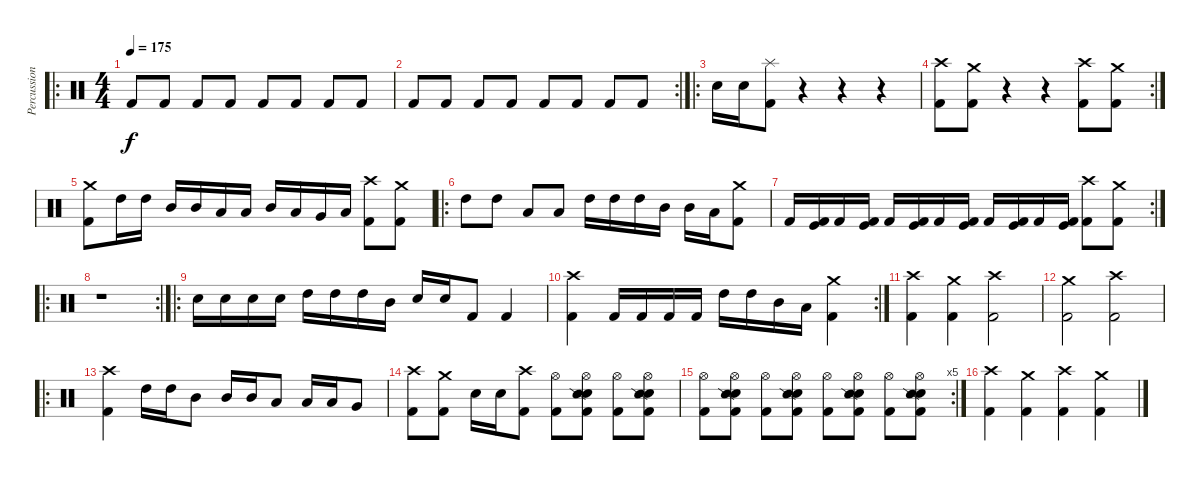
\track ("Percussion" "Percussion") {instrument percussion}
\staff {score}
\articulation defaults
\ro
\ts (4 4)
\tempo 175
\clef neutral
\ks c "Kick (hit) 2".8{dy f} "Kick (hit) 2".8 "Kick (hit) 2".8 "Kick (hit) 2".8 "Kick (hit) 2".8 "Kick (hit) 2".8 "Kick (hit) 2".8 "Kick (hit) 2".8
|
\rc 2 "Kick (hit) 2".8 "Kick (hit) 2".8 "Kick (hit) 2".8 "Kick (hit) 2".8 "Kick (hit) 2".8 "Kick (hit) 2".8 "Kick (hit) 2".8 "Kick (hit) 2".8
|
\ro "Electric Snare (hit)".16 "Electric Snare (hit)".16
("Splash (hit)" "Kick (hit) 2").8 r.4 r.4 r.4 |
\rc 2
("Crash high (hit)" "Kick (hit) 2").8 ("Crash medium (hit)" "Kick (hit) 2").8 r.4 r.4 ("Crash high (hit)" "Kick (hit) 2").8 ("Crash medium (hit)" "Kick (hit) 2").8 |
("Crash medium (hit)" "Kick (hit) 2").8 "High Tom (hit)".16 "High Tom (hit)".16 "Mid Tom (hit)".16 "Mid Tom (hit)".16 "Low Tom (hit)".16 "Low Tom (hit)".16 "Mid Tom (hit)".16 "Low Tom (hit)".16 "Very Low Tom (hit)".16 "Low Floor Tom (hit)".16 ("Crash high (hit)" "Kick (hit) 2").8 ("Crash medium (hit)" "Kick (hit) 2").8 |
\ro "High Tom (hit)".8 "High Tom (hit)".8 "Low Tom (hit)".8 "Low Tom (hit)".8 "High Tom (hit)".16 "High Tom (hit)".16 "High Tom (hit)".16 "Mid Tom (hit)".16 "Mid Tom (hit)".16 "Low Tom (hit)".16
("Crash medium (hit)" "Kick (hit) 2").8 |
\rc 2 "Kick (hit) 2".16
("Kick (hit)" "Kick (hit) 2").16 "Kick (hit) 2".16 ("Kick (hit)" "Kick (hit) 2").16 "Kick (hit) 2".16 ("Kick (hit)" "Kick (hit) 2").16 "Kick (hit) 2".16 ("Kick (hit)" "Kick (hit) 2").16 "Kick (hit) 2".16 ("Kick (hit)" "Kick (hit) 2").16 "Kick (hit) 2".16 ("Kick (hit)" "Kick (hit) 2").16 ("Crash high (hit)" "Kick (hit) 2").8 ("Crash medium (hit)" "Kick (hit) 2").8 |
\ro
\rc 2
r.1 |
\ro "Electric Snare (hit)".16 "Electric Snare (hit)".16 "Electric Snare (hit)".16 "Electric Snare (hit)".16 "High Tom (hit)".16 "High Tom (hit)".16 "High Tom (hit)".16 "Mid Tom (hit)".16 "Electric Snare (hit)".16 "Electric Snare (hit)".16 "Kick (hit) 2".8 "Kick (hit) 2".4
|
\rc 2
("Crash high (hit)" "Kick (hit) 2").4 "Kick (hit) 2".16 "Kick (hit) 2".16 "Kick (hit) 2".16 "Kick (hit) 2".16 "High Tom (hit)".16 "High Tom (hit)".16 "Mid Tom (hit)".16 "Low Tom (hit)".16 ("Crash medium (hit)" "Kick (hit) 2").4 |
("Crash high (hit)" "Kick (hit) 2").4 ("Crash medium (hit)" "Kick (hit) 2").4 ("Crash high (hit)" "Kick (hit) 2").2 |
("Crash medium (hit)" "Kick (hit) 2").2 ("Crash high (hit)" "Kick (hit) 2").2 |
\ro
("Crash high (hit)" "Kick (hit) 2").4 "High Tom (hit)".16 "High Tom (hit)".16 "Mid Tom (hit)".8 "Mid Tom (hit)".16 "Mid Tom (hit)".16 "Low Tom (hit)".8 "Low Tom (hit)".16 "Low Tom (hit)".16 "Very Low Tom (hit)".8 |
("Crash high (hit)" "Kick (hit) 2").8 ("Crash medium (hit)" "Kick (hit) 2").8 "Electric Snare (hit)".16 "Electric Snare (hit)".16 ("Crash high (hit)" "Kick (hit) 2").8 ("Hi-Hat (open)" "Kick (hit) 2").8 ("Hi-Hat (open)" "Electric Snare (hit)" "Snare (side stick) 2" "Kick (hit) 2").8 ("Hi-Hat (open)" "Kick (hit) 2").8 ("Hi-Hat (open)" "Electric Snare (hit)" "Snare (side stick) 2" "Kick (hit) 2").8 |
\rc 5
("Hi-Hat (open)" "Kick (hit) 2").8 ("Hi-Hat (open)" "Electric Snare (hit)" "Snare (side stick) 2" "Kick (hit) 2").8 ("Hi-Hat (open)" "Kick (hit) 2").8 ("Hi-Hat (open)" "Electric Snare (hit)" "Snare (side stick) 2" "Kick (hit) 2").8 ("Hi-Hat (open)" "Kick (hit) 2").8 ("Hi-Hat (open)" "Electric Snare (hit)" "Snare (side stick) 2" "Kick (hit) 2").8 ("Hi-Hat (open)" "Kick (hit) 2").8 ("Hi-Hat (open)" "Electric Snare (hit)" "Snare (side stick) 2" "Kick (hit) 2").8 |
("Crash high (hit)" "Kick (hit) 2").4 ("Crash medium (hit)" "Kick (hit) 2").4 ("Crash high (hit)" "Kick (hit) 2").4 ("Crash medium (hit)" "Kick (hit) 2").4
